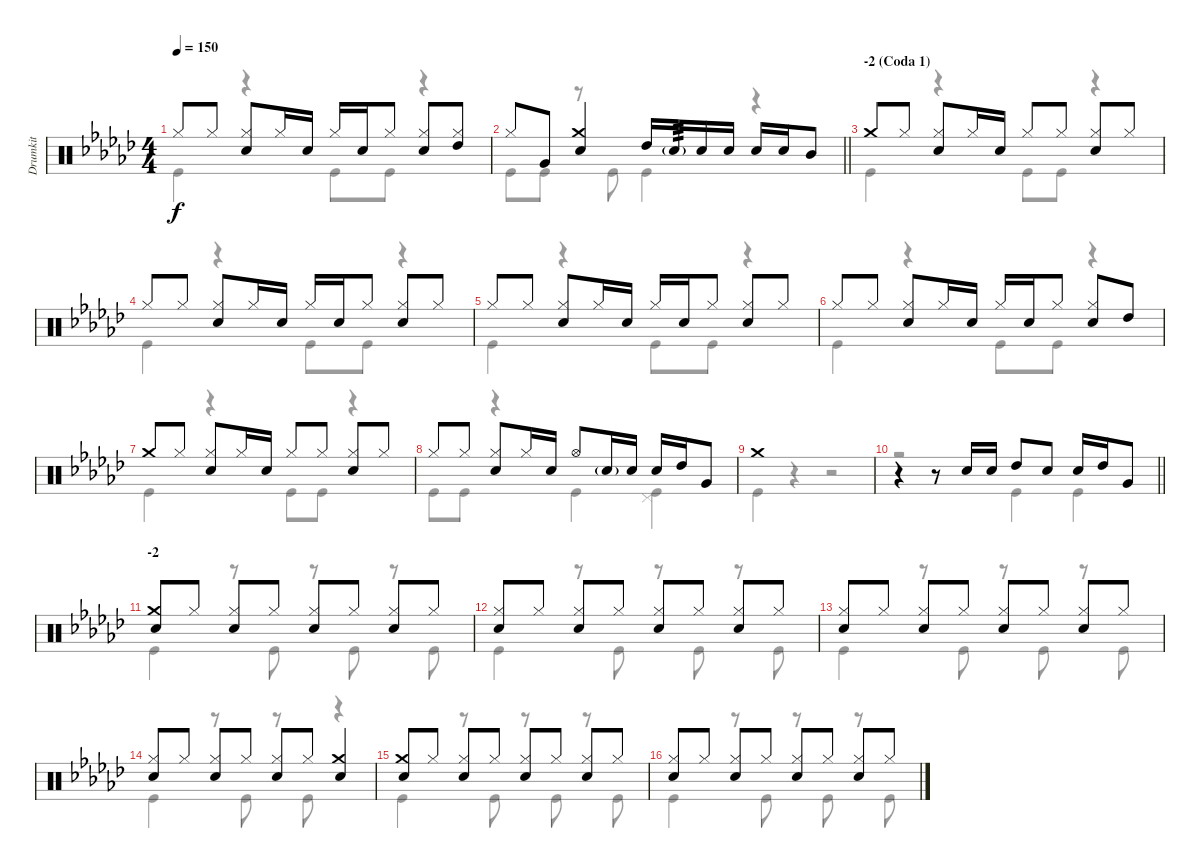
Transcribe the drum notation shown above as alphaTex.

\track ("Drumkit" "Drumkit") {instrument percussion}
\staff {score}
\articulation defaults
\voice
\ts (4 4)
\tempo 150
\clef neutral
\ks ebminor "Hi-Hat (closed)".8{dy f} "Hi-Hat (closed)".8
("Hi-Hat (closed)" "Snare (hit) 2").8 "Hi-Hat (closed)".16 "Snare (hit) 2".16 "Hi-Hat (closed)".16 "Snare (hit) 2".16 "Hi-Hat (closed)".8 ("Hi-Hat (closed)" "Snare (hit) 2").8 ("Hi-Hat (closed)" "High Tom (hit)").8 |
\barLineRight lightlight "Hi-Hat (closed)".8 "Very Low Tom (hit)".8
("Snare (hit) 2" "Crash medium (hit)").4 "High Tom (hit)".16 "Snare (hit) 2"{g}.16{tp 3} "Snare (hit) 2".16 "Snare (hit) 2".16 "Snare (hit) 2".16 "Snare (hit) 2".16 "Mid Tom (hit)".8 |
\section ("" "-2 (Coda 1)")
"Crash medium (hit)".8 "Hi-Hat (closed)".8 ("Hi-Hat (closed)" "Snare (hit) 2").8 "Hi-Hat (closed)".16 "Snare (hit) 2".16 "Hi-Hat (closed)".8 "Hi-Hat (closed)".8 ("Hi-Hat (closed)" "Snare (hit) 2").8 "Hi-Hat (closed)".8 |
"Hi-Hat (closed)".8 "Hi-Hat (closed)".8 ("Hi-Hat (closed)" "Snare (hit) 2").8 "Hi-Hat (closed)".16 "Snare (hit) 2".16 "Hi-Hat (closed)".16 "Snare (hit) 2".16 "Hi-Hat (closed)".8 ("Hi-Hat (closed)" "Snare (hit) 2").8 "Hi-Hat (closed)".8 |
"Hi-Hat (closed)".8 "Hi-Hat (closed)".8 ("Hi-Hat (closed)" "Snare (hit) 2").8 "Hi-Hat (closed)".16 "Snare (hit) 2".16 "Hi-Hat (closed)".16 "Snare (hit) 2".16 "Hi-Hat (closed)".8 ("Hi-Hat (closed)" "Snare (hit) 2").8 "Hi-Hat (closed)".8 |
"Hi-Hat (closed)".8 "Hi-Hat (closed)".8 ("Hi-Hat (closed)" "Snare (hit) 2").8 "Hi-Hat (closed)".16 "Snare (hit) 2".16 "Hi-Hat (closed)".16 "Snare (hit) 2".16 "Hi-Hat (closed)".8 ("Hi-Hat (closed)" "Snare (hit) 2").8 "High Tom (hit)".8 |
"Crash medium (hit)".8 "Hi-Hat (closed)".8 ("Hi-Hat (closed)" "Snare (hit) 2").8 "Hi-Hat (closed)".16 "Snare (hit) 2".16 "Hi-Hat (closed)".8 "Hi-Hat (closed)".8 ("Hi-Hat (closed)" "Snare (hit) 2").8 "Hi-Hat (closed)".8 |
"Hi-Hat (closed)".8 "Hi-Hat (closed)".8 ("Hi-Hat (closed)" "Snare (hit) 2").8 "Hi-Hat (closed)".16 "Snare (hit) 2".16 "Hi-Hat (open)".8 "Snare (hit) 2"{g}.16 "Snare (hit) 2".16 "Snare (hit) 2".16 "High Tom (hit)".16 "Very Low Tom (hit)".8 |
"Crash medium (hit)".1 |
\barLineRight lightlight
r.4 r.8 "Snare (hit) 2".16 "Snare (hit) 2".16 "High Tom (hit)".8 "Snare (hit) 2".8 "Snare (hit) 2".16 "High Tom (hit)".16 "Very Low Tom (hit)".8 |
\section ("" "-2")
("Crash medium (hit)" "Snare (hit) 2").8 "Hi-Hat (closed)".8 ("Hi-Hat (closed)" "Snare (hit) 2").8 "Hi-Hat (closed)".8 ("Hi-Hat (closed)" "Snare (hit) 2").8 "Hi-Hat (closed)".8 ("Hi-Hat (closed)" "Snare (hit) 2").8 "Hi-Hat (closed)".8 |
("Hi-Hat (closed)" "Snare (hit) 2").8 "Hi-Hat (closed)".8 ("Hi-Hat (closed)" "Snare (hit) 2").8 "Hi-Hat (closed)".8 ("Hi-Hat (closed)" "Snare (hit) 2").8 "Hi-Hat (closed)".8 ("Hi-Hat (closed)" "Snare (hit) 2").8 "Hi-Hat (closed)".8 |
("Hi-Hat (closed)" "Snare (hit) 2").8 "Hi-Hat (closed)".8 ("Hi-Hat (closed)" "Snare (hit) 2").8 "Hi-Hat (closed)".8 ("Hi-Hat (closed)" "Snare (hit) 2").8 "Hi-Hat (closed)".8 ("Hi-Hat (closed)" "Snare (hit) 2").8 "Hi-Hat (closed)".8 |
("Hi-Hat (closed)" "Snare (hit) 2").8 "Hi-Hat (closed)".8 ("Hi-Hat (closed)" "Snare (hit) 2").8 "Hi-Hat (closed)".8 ("Hi-Hat (closed)" "Snare (hit) 2").8 "Hi-Hat (closed)".8 ("Snare (hit) 2" "Crash medium (hit)").4 |
("Crash medium (hit)" "Snare (hit) 2").8 "Hi-Hat (closed)".8 ("Hi-Hat (closed)" "Snare (hit) 2").8 "Hi-Hat (closed)".8 ("Hi-Hat (closed)" "Snare (hit) 2").8 "Hi-Hat (closed)".8 ("Hi-Hat (closed)" "Snare (hit) 2").8 "Hi-Hat (closed)".8 |
("Hi-Hat (closed)" "Snare (hit) 2").8 "Hi-Hat (closed)".8 ("Hi-Hat (closed)" "Snare (hit) 2").8 "Hi-Hat (closed)".8 ("Hi-Hat (closed)" "Snare (hit) 2").8 "Hi-Hat (closed)".8 ("Hi-Hat (closed)" "Snare (hit) 2").8 "Hi-Hat (closed)".8
\voice
\clef neutral
\ottava regular
\simile none
\ks ebminor "Kick (hit)".4{dy f}
r.4 "Kick (hit)".8 "Kick (hit)".8 r.4 |
\barLineRight lightlight "Kick (hit)".8 "Kick (hit)".8
r.8 "Kick (hit)".8 "Kick (hit)".4 r.4 |
"Kick (hit)".4 r.4 "Kick (hit)".8 "Kick (hit)".8 r.4 |
"Kick (hit)".4 r.4 "Kick (hit)".8 "Kick (hit)".8 r.4 |
"Kick (hit)".4 r.4 "Kick (hit)".8 "Kick (hit)".8 r.4 |
"Kick (hit)".4 r.4 "Kick (hit)".8 "Kick (hit)".8 r.4 |
"Kick (hit)".4 r.4 "Kick (hit)".8 "Kick (hit)".8 r.4 |
"Kick (hit)".8 "Kick (hit)".8 r.4 "Kick (hit)".4 ("Kick (hit)" "Pedal Hi-Hat (hit)").4 |
"Kick (hit)".4 r.4 r.2 |
\barLineRight lightlight
r.2 "Kick (hit)".4 "Kick (hit)".4 |
"Kick (hit)".4 r.8 "Kick (hit)".8 r.8 "Kick (hit)".8 r.8 "Kick (hit)".8 |
"Kick (hit)".4 r.8 "Kick (hit)".8 r.8 "Kick (hit)".8 r.8 "Kick (hit)".8 |
"Kick (hit)".4 r.8 "Kick (hit)".8 r.8 "Kick (hit)".8 r.8 "Kick (hit)".8 |
"Kick (hit)".4 r.8 "Kick (hit)".8 r.8 "Kick (hit)".8 r.4 |
"Kick (hit)".4 r.8 "Kick (hit)".8 r.8 "Kick (hit)".8 r.8 "Kick (hit)".8 |
"Kick (hit)".4 r.8 "Kick (hit)".8 r.8 "Kick (hit)".8 r.8 "Kick (hit)".8
